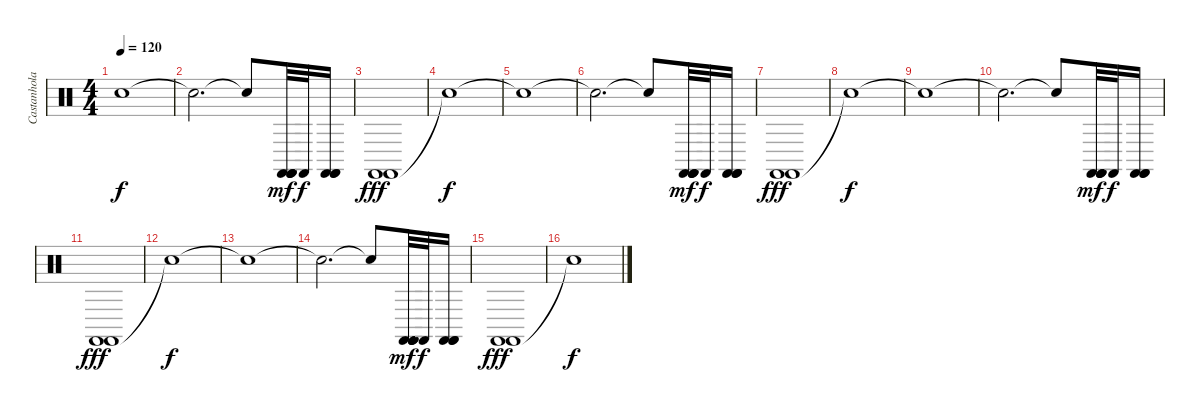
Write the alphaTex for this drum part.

\track ("Castanholas etc. ïåğêóññèÿ" "Castanhola") {instrument percussion}
\staff {score}
\articulation defaults
\ts (4 4)
\tempo 120
\clef neutral
\ks c "Snare (hit)"{t}.1{dy f}
|
"Snare (hit)"{t}.2{d} "Snare (hit)"{t}.8 ("Castanets (hit)" "Castanets (hit)" "Castanets (hit)" "Castanets (hit)").32{dy mf} "Castanets (hit)".32{dy f} ("Castanets (hit)" "Castanets (hit)" "Castanets (hit)").16 |
("Castanets (hit)" "Castanets (hit)").1{dy fff} |
"Snare (hit)"{t}.1{dy f} |
"Snare (hit)"{t}.1 |
"Snare (hit)"{t}.2{d} "Snare (hit)"{t}.8 ("Castanets (hit)" "Castanets (hit)" "Castanets (hit)" "Castanets (hit)").32{dy mf} "Castanets (hit)".32{dy f} ("Castanets (hit)" "Castanets (hit)" "Castanets (hit)").16 |
("Castanets (hit)" "Castanets (hit)").1{dy fff} |
"Snare (hit)"{t}.1{dy f} |
"Snare (hit)"{t}.1 |
"Snare (hit)"{t}.2{d} "Snare (hit)"{t}.8 ("Castanets (hit)" "Castanets (hit)" "Castanets (hit)" "Castanets (hit)").32{dy mf} "Castanets (hit)".32{dy f} ("Castanets (hit)" "Castanets (hit)" "Castanets (hit)").16 |
("Castanets (hit)" "Castanets (hit)").1{dy fff} |
"Snare (hit)"{t}.1{dy f} |
"Snare (hit)"{t}.1 |
"Snare (hit)"{t}.2{d} "Snare (hit)"{t}.8 ("Castanets (hit)" "Castanets (hit)" "Castanets (hit)" "Castanets (hit)").32{dy mf} "Castanets (hit)".32{dy f} ("Castanets (hit)" "Castanets (hit)" "Castanets (hit)").16 |
("Castanets (hit)" "Castanets (hit)").1{dy fff} |
"Snare (hit)"{t}.1{dy f}
